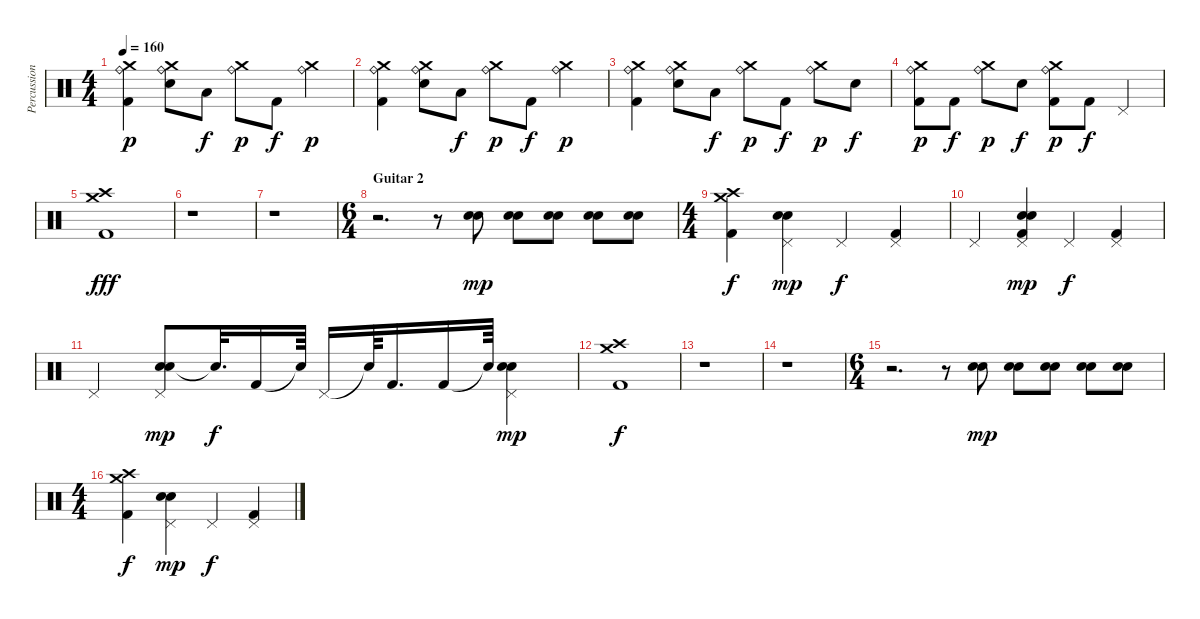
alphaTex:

\track ("Percussion" "Percussion") {instrument percussion}
\staff {score}
\articulation defaults
\ts (4 4)
\tempo 160
\clef neutral
\ks c
("Ride (bell)" "Kick (hit) 2" "Crash medium (hit)").4{dy p} ("Ride (bell)" "Snare (hit) 2" "Crash medium (hit)").8 "Low Floor Tom (hit)".8{dy f} ("Ride (bell)" "Crash medium (hit)").8{dy p} "Kick (hit) 2".8{dy f} ("Ride (bell)" "Crash medium (hit)").4{dy p} |
("Kick (hit) 2" "Ride (bell)" "Crash medium (hit)").4 ("Snare (hit) 2" "Ride (bell)" "Crash medium (hit)").8 "Low Floor Tom (hit)".8{dy f} ("Ride (bell)" "Crash medium (hit)").8{dy p} "Kick (hit) 2".8{dy f} ("Ride (bell)" "Crash medium (hit)").4{dy p} |
("Kick (hit) 2" "Ride (bell)" "Crash medium (hit)").4 ("Snare (hit) 2" "Ride (bell)" "Crash medium (hit)").8 "Low Floor Tom (hit)".8{dy f} ("Ride (bell)" "Crash medium (hit)").8{dy p} "Kick (hit) 2".8{dy f} ("Ride (bell)" "Crash medium (hit)").8{dy p} "Snare (hit) 2".8{dy f} |
("Ride (bell)" "Kick (hit) 2" "Crash medium (hit)").8{dy p} "Kick (hit) 2".8{dy f} ("Ride (bell)" "Crash medium (hit)").8{dy p} "Snare (hit) 2".8{dy f} ("Ride (bell)" "Kick (hit) 2" "Crash medium (hit)").8{dy p} "Kick (hit) 2".8{dy f} "Pedal Hi-Hat (hit)".4 |
("Kick (hit) 2" "Crash high (hit)" "Crash medium (hit)").1{dy fff} |
r.1 |
r.1 |
\ts (6 4)
\section ("" "Guitar 2")
r.2{d} r.8 ("Snare (hit) 2" "Electric Snare (hit)").8{dy mp} ("Snare (hit) 2" "Electric Snare (hit)").8 ("Snare (hit) 2" "Electric Snare (hit)").8 ("Snare (hit) 2" "Electric Snare (hit)").8 ("Snare (hit) 2" "Electric Snare (hit)").8 |
\ts (4 4)
("Crash medium (hit)" "Kick (hit) 2" "Crash high (hit)").4{dy f} ("Snare (hit) 2" "Electric Snare (hit)" "Pedal Hi-Hat (hit)").4{dy mp} "Pedal Hi-Hat (hit)".4{dy f} ("Pedal Hi-Hat (hit)" "Kick (hit) 2").4 |
"Pedal Hi-Hat (hit)".4 ("Snare (hit) 2" "Pedal Hi-Hat (hit)" "Kick (hit) 2" "Electric Snare (hit)").4{dy mp} "Pedal Hi-Hat (hit)".4{dy f} ("Kick (hit) 2" "Pedal Hi-Hat (hit)").4 |
"Pedal Hi-Hat (hit)".4 ("Snare (hit) 2" "Electric Snare (hit)" "Pedal Hi-Hat (hit)").8{dy mp} "Snare (hit)"{t}.32{d dy f} "Kick (hit) 2".16 "Snare (hit)"{t}.64 "Pedal Hi-Hat (hit)".16 "Snare (hit)"{t}.64 "Kick (hit) 2".16{d} "Kick (hit) 2".16 "Snare (hit)"{t}.64 ("Snare (hit) 2" "Electric Snare (hit)" "Pedal Hi-Hat (hit)").4{dy mp} |
("Kick (hit) 2" "Crash high (hit)" "Crash medium (hit)").1{dy f} |
r.1 |
r.1 |
\ts (6 4)
r.2{d} r.8 ("Snare (hit) 2" "Electric Snare (hit)").8{dy mp} ("Snare (hit) 2" "Electric Snare (hit)").8 ("Snare (hit) 2" "Electric Snare (hit)").8 ("Snare (hit) 2" "Electric Snare (hit)").8 ("Snare (hit) 2" "Electric Snare (hit)").8 |
\ts (4 4)
("Crash medium (hit)" "Kick (hit) 2" "Crash high (hit)").4{dy f} ("Snare (hit) 2" "Electric Snare (hit)" "Pedal Hi-Hat (hit)").4{dy mp} "Pedal Hi-Hat (hit)".4{dy f} ("Pedal Hi-Hat (hit)" "Kick (hit) 2").4
